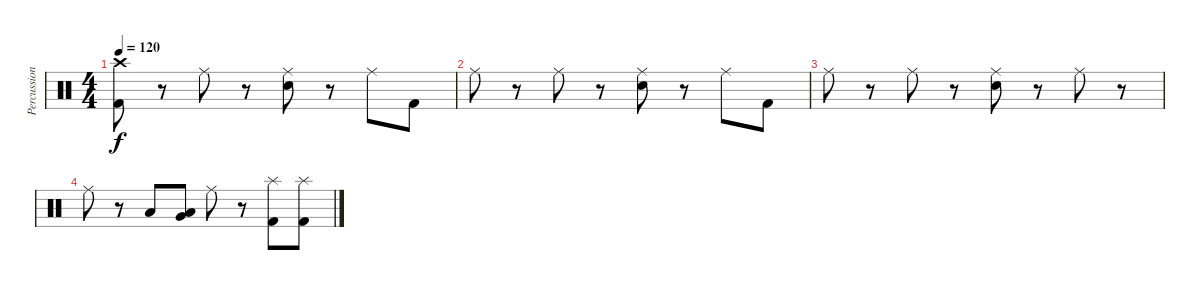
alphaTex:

\track ("Percussion" "Percussion") {instrument percussion}
\staff {score}
\articulation defaults
\ts (4 4)
\tempo 120
\clef neutral
\ks c
("Kick (hit) 2" "Crash high (hit)").8{dy f} r.8 "Ride (middle)".8 r.8 ("Electric Snare (hit)" "Ride (middle)").8 r.8 "Ride (middle)".8 "Kick (hit) 2".8 |
"Ride (middle)".8 r.8 "Ride (middle)".8 r.8 ("Electric Snare (hit)" "Ride (middle)").8 r.8 "Ride (middle)".8 "Kick (hit) 2".8 |
"Ride (middle)".8 r.8 "Ride (middle)".8 r.8 ("Electric Snare (hit)" "Ride (middle)").8 r.8 "Ride (middle)".8 r.8 |
"Ride (middle)".8 r.8 "Low Tom (hit)".8 ("Very Low Tom (hit)" "Low Floor Tom (hit)").8 "Ride (middle)".8 r.8 ("Splash (hit)" "Kick (hit) 2").8 ("Splash (hit)" "Kick (hit) 2").8
